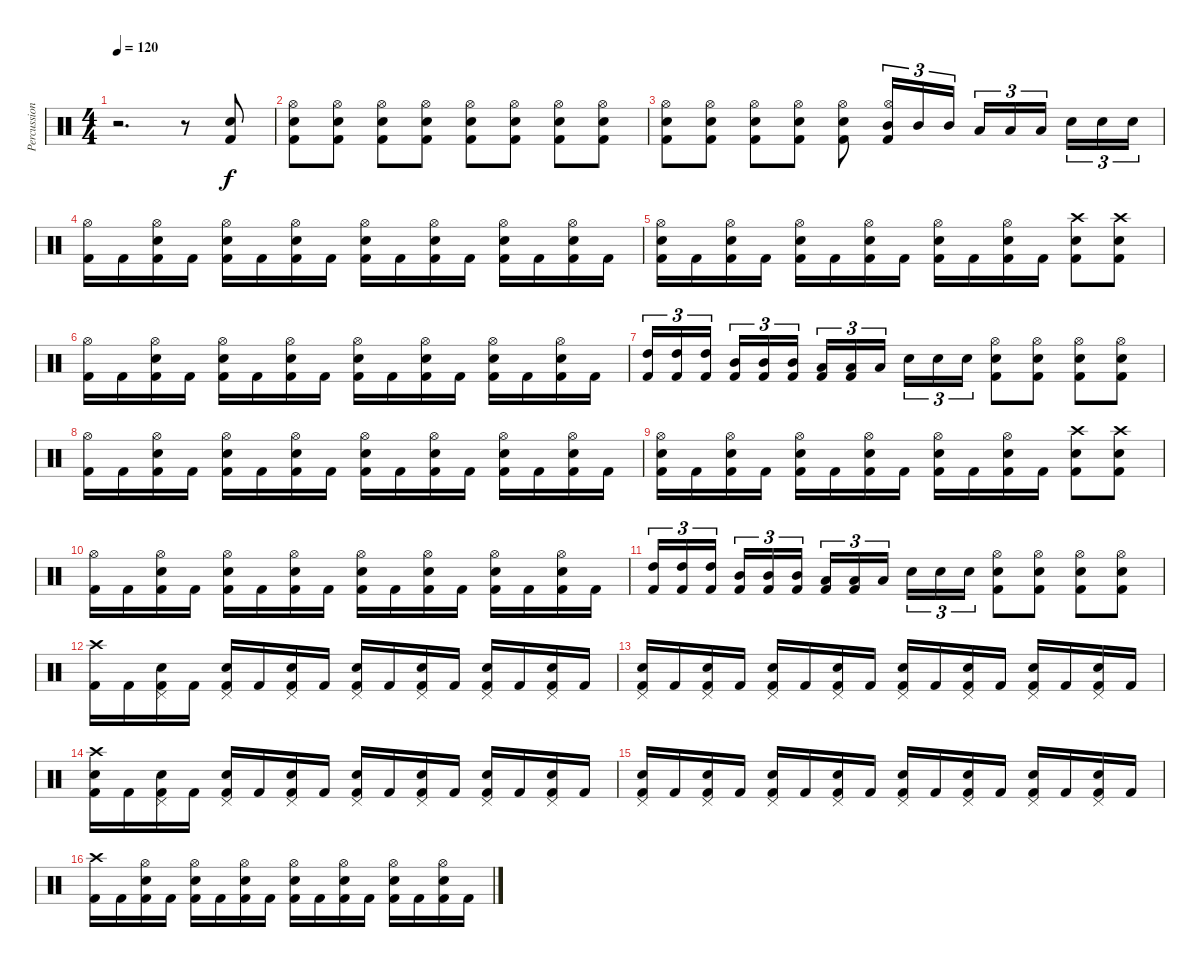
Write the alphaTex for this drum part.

\track ("Percussion" "Percussion") {instrument percussion}
\staff {score}
\articulation defaults
\ts (4 4)
\tempo 120
\clef neutral
\ks c
r.2{d dy f} r.8 ("Snare (hit) 2" "Kick (hit) 2").8 |
("Hi-Hat (open)" "Snare (hit) 2" "Kick (hit) 2").8 ("Hi-Hat (open)" "Snare (hit) 2" "Kick (hit) 2").8 ("Hi-Hat (open)" "Snare (hit) 2" "Kick (hit) 2").8 ("Hi-Hat (open)" "Snare (hit) 2" "Kick (hit) 2").8 ("Hi-Hat (open)" "Snare (hit) 2" "Kick (hit) 2").8 ("Hi-Hat (open)" "Snare (hit) 2" "Kick (hit) 2").8 ("Hi-Hat (open)" "Snare (hit) 2" "Kick (hit) 2").8 ("Hi-Hat (open)" "Snare (hit) 2" "Kick (hit) 2").8 |
("Hi-Hat (open)" "Snare (hit) 2" "Kick (hit) 2").8 ("Hi-Hat (open)" "Snare (hit) 2" "Kick (hit) 2").8 ("Hi-Hat (open)" "Snare (hit) 2" "Kick (hit) 2").8 ("Hi-Hat (open)" "Snare (hit) 2" "Kick (hit) 2").8 ("Hi-Hat (open)" "Snare (hit) 2" "Kick (hit) 2").8 ("Hi-Hat (open)" "Mid Tom (hit)" "Kick (hit) 2").16{tu (3 2)} "Mid Tom (hit)".16{tu (3 2)} "Mid Tom (hit)".16{tu (3 2)} "Low Tom (hit)".16{tu (3 2)} "Low Tom (hit)".16{tu (3 2)} "Low Tom (hit)".16{tu (3 2)} "Snare (hit) 2".16{tu (3 2)} "Snare (hit) 2".16{tu (3 2)} "Snare (hit) 2".16{tu (3 2)} |
("Hi-Hat (open)" "Kick (hit) 2").16 "Kick (hit) 2".16 ("Hi-Hat (open)" "Snare (hit) 2" "Kick (hit) 2").16 "Kick (hit) 2".16 ("Hi-Hat (open)" "Snare (hit) 2" "Kick (hit) 2").16 "Kick (hit) 2".16 ("Hi-Hat (open)" "Snare (hit) 2" "Kick (hit) 2").16 "Kick (hit) 2".16 ("Hi-Hat (open)" "Snare (hit) 2" "Kick (hit) 2").16 "Kick (hit) 2".16 ("Hi-Hat (open)" "Snare (hit) 2" "Kick (hit) 2").16 "Kick (hit) 2".16 ("Hi-Hat (open)" "Snare (hit) 2" "Kick (hit) 2").16 "Kick (hit) 2".16 ("Hi-Hat (open)" "Snare (hit) 2" "Kick (hit) 2").16 "Kick (hit) 2".16 |
("Hi-Hat (open)" "Snare (hit) 2" "Kick (hit) 2").16 "Kick (hit) 2".16 ("Hi-Hat (open)" "Snare (hit) 2" "Kick (hit) 2").16 "Kick (hit) 2".16 ("Hi-Hat (open)" "Snare (hit) 2" "Kick (hit) 2").16 "Kick (hit) 2".16 ("Hi-Hat (open)" "Snare (hit) 2" "Kick (hit) 2").16 "Kick (hit) 2".16 ("Hi-Hat (open)" "Snare (hit) 2" "Kick (hit) 2").16 "Kick (hit) 2".16 ("Hi-Hat (open)" "Snare (hit) 2" "Kick (hit) 2").16 "Kick (hit) 2".16 ("Crash high (hit)" "Snare (hit) 2" "Kick (hit) 2").8 ("Crash high (hit)" "Snare (hit) 2" "Kick (hit) 2").8 |
("Hi-Hat (open)" "Kick (hit) 2").16 "Kick (hit) 2".16 ("Hi-Hat (open)" "Snare (hit) 2" "Kick (hit) 2").16 "Kick (hit) 2".16 ("Hi-Hat (open)" "Snare (hit) 2" "Kick (hit) 2").16 "Kick (hit) 2".16 ("Hi-Hat (open)" "Snare (hit) 2" "Kick (hit) 2").16 "Kick (hit) 2".16 ("Hi-Hat (open)" "Snare (hit) 2" "Kick (hit) 2").16 "Kick (hit) 2".16 ("Hi-Hat (open)" "Snare (hit) 2" "Kick (hit) 2").16 "Kick (hit) 2".16 ("Hi-Hat (open)" "Snare (hit) 2" "Kick (hit) 2").16 "Kick (hit) 2".16 ("Hi-Hat (open)" "Snare (hit) 2" "Kick (hit) 2").16 "Kick (hit) 2".16 |
("High Tom (hit)" "Kick (hit) 2").16{tu (3 2)} ("High Tom (hit)" "Kick (hit) 2").16{tu (3 2)} ("High Tom (hit)" "Kick (hit) 2").16{tu (3 2)} ("Mid Tom (hit)" "Kick (hit) 2").16{tu (3 2)} ("Mid Tom (hit)" "Kick (hit) 2").16{tu (3 2)} ("Mid Tom (hit)" "Kick (hit) 2").16{tu (3 2)} ("Low Tom (hit)" "Kick (hit) 2").16{tu (3 2)} ("Low Tom (hit)" "Kick (hit) 2").16{tu (3 2)} "Low Tom (hit)".16{tu (3 2)} "Snare (hit) 2".16{tu (3 2)} "Snare (hit) 2".16{tu (3 2)} "Snare (hit) 2".16{tu (3 2)} ("Hi-Hat (open)" "Snare (hit) 2" "Kick (hit) 2").8 ("Hi-Hat (open)" "Snare (hit) 2" "Kick (hit) 2").8 ("Hi-Hat (open)" "Snare (hit) 2" "Kick (hit) 2").8 ("Hi-Hat (open)" "Snare (hit) 2" "Kick (hit) 2").8 |
("Hi-Hat (open)" "Kick (hit) 2").16 "Kick (hit) 2".16 ("Hi-Hat (open)" "Snare (hit) 2" "Kick (hit) 2").16 "Kick (hit) 2".16 ("Hi-Hat (open)" "Snare (hit) 2" "Kick (hit) 2").16 "Kick (hit) 2".16 ("Hi-Hat (open)" "Snare (hit) 2" "Kick (hit) 2").16 "Kick (hit) 2".16 ("Hi-Hat (open)" "Snare (hit) 2" "Kick (hit) 2").16 "Kick (hit) 2".16 ("Hi-Hat (open)" "Snare (hit) 2" "Kick (hit) 2").16 "Kick (hit) 2".16 ("Hi-Hat (open)" "Snare (hit) 2" "Kick (hit) 2").16 "Kick (hit) 2".16 ("Hi-Hat (open)" "Snare (hit) 2" "Kick (hit) 2").16 "Kick (hit) 2".16 |
("Hi-Hat (open)" "Snare (hit) 2" "Kick (hit) 2").16 "Kick (hit) 2".16 ("Hi-Hat (open)" "Snare (hit) 2" "Kick (hit) 2").16 "Kick (hit) 2".16 ("Hi-Hat (open)" "Snare (hit) 2" "Kick (hit) 2").16 "Kick (hit) 2".16 ("Hi-Hat (open)" "Snare (hit) 2" "Kick (hit) 2").16 "Kick (hit) 2".16 ("Hi-Hat (open)" "Snare (hit) 2" "Kick (hit) 2").16 "Kick (hit) 2".16 ("Hi-Hat (open)" "Snare (hit) 2" "Kick (hit) 2").16 "Kick (hit) 2".16 ("Crash high (hit)" "Snare (hit) 2" "Kick (hit) 2").8 ("Crash high (hit)" "Snare (hit) 2" "Kick (hit) 2").8 |
("Hi-Hat (open)" "Kick (hit) 2").16 "Kick (hit) 2".16 ("Hi-Hat (open)" "Snare (hit) 2" "Kick (hit) 2").16 "Kick (hit) 2".16 ("Hi-Hat (open)" "Snare (hit) 2" "Kick (hit) 2").16 "Kick (hit) 2".16 ("Hi-Hat (open)" "Snare (hit) 2" "Kick (hit) 2").16 "Kick (hit) 2".16 ("Hi-Hat (open)" "Snare (hit) 2" "Kick (hit) 2").16 "Kick (hit) 2".16 ("Hi-Hat (open)" "Snare (hit) 2" "Kick (hit) 2").16 "Kick (hit) 2".16 ("Hi-Hat (open)" "Snare (hit) 2" "Kick (hit) 2").16 "Kick (hit) 2".16 ("Hi-Hat (open)" "Snare (hit) 2" "Kick (hit) 2").16 "Kick (hit) 2".16 |
("High Tom (hit)" "Kick (hit) 2").16{tu (3 2)} ("High Tom (hit)" "Kick (hit) 2").16{tu (3 2)} ("High Tom (hit)" "Kick (hit) 2").16{tu (3 2)} ("Mid Tom (hit)" "Kick (hit) 2").16{tu (3 2)} ("Mid Tom (hit)" "Kick (hit) 2").16{tu (3 2)} ("Mid Tom (hit)" "Kick (hit) 2").16{tu (3 2)} ("Low Tom (hit)" "Kick (hit) 2").16{tu (3 2)} ("Low Tom (hit)" "Kick (hit) 2").16{tu (3 2)} "Low Tom (hit)".16{tu (3 2)} "Snare (hit) 2".16{tu (3 2)} "Snare (hit) 2".16{tu (3 2)} "Snare (hit) 2".16{tu (3 2)} ("Hi-Hat (open)" "Snare (hit) 2" "Kick (hit) 2").8 ("Hi-Hat (open)" "Snare (hit) 2" "Kick (hit) 2").8 ("Hi-Hat (open)" "Snare (hit) 2" "Kick (hit) 2").8 ("Hi-Hat (open)" "Snare (hit) 2" "Kick (hit) 2").8 |
("Crash high (hit)" "Kick (hit) 2").16 "Kick (hit) 2".16 ("Pedal Hi-Hat (hit)" "Snare (hit) 2" "Kick (hit) 2").16 "Kick (hit) 2".16 ("Pedal Hi-Hat (hit)" "Snare (hit) 2" "Kick (hit) 2").16 "Kick (hit) 2".16 ("Pedal Hi-Hat (hit)" "Snare (hit) 2" "Kick (hit) 2").16 "Kick (hit) 2".16 ("Pedal Hi-Hat (hit)" "Snare (hit) 2" "Kick (hit) 2").16 "Kick (hit) 2".16 ("Pedal Hi-Hat (hit)" "Snare (hit) 2" "Kick (hit) 2").16 "Kick (hit) 2".16 ("Pedal Hi-Hat (hit)" "Snare (hit) 2" "Kick (hit) 2").16 "Kick (hit) 2".16 ("Pedal Hi-Hat (hit)" "Snare (hit) 2" "Kick (hit) 2").16 "Kick (hit) 2".16 |
("Pedal Hi-Hat (hit)" "Snare (hit) 2" "Kick (hit) 2").16 "Kick (hit) 2".16 ("Pedal Hi-Hat (hit)" "Snare (hit) 2" "Kick (hit) 2").16 "Kick (hit) 2".16 ("Pedal Hi-Hat (hit)" "Snare (hit) 2" "Kick (hit) 2").16 "Kick (hit) 2".16 ("Pedal Hi-Hat (hit)" "Snare (hit) 2" "Kick (hit) 2").16 "Kick (hit) 2".16 ("Pedal Hi-Hat (hit)" "Snare (hit) 2" "Kick (hit) 2").16 "Kick (hit) 2".16 ("Pedal Hi-Hat (hit)" "Snare (hit) 2" "Kick (hit) 2").16 "Kick (hit) 2".16 ("Pedal Hi-Hat (hit)" "Snare (hit) 2" "Kick (hit) 2").16 "Kick (hit) 2".16 ("Pedal Hi-Hat (hit)" "Snare (hit) 2" "Kick (hit) 2").16 "Kick (hit) 2".16 |
("Crash high (hit)" "Snare (hit) 2" "Kick (hit) 2").16 "Kick (hit) 2".16 ("Pedal Hi-Hat (hit)" "Snare (hit) 2" "Kick (hit) 2").16 "Kick (hit) 2".16 ("Pedal Hi-Hat (hit)" "Snare (hit) 2" "Kick (hit) 2").16 "Kick (hit) 2".16 ("Pedal Hi-Hat (hit)" "Snare (hit) 2" "Kick (hit) 2").16 "Kick (hit) 2".16 ("Pedal Hi-Hat (hit)" "Snare (hit) 2" "Kick (hit) 2").16 "Kick (hit) 2".16 ("Pedal Hi-Hat (hit)" "Snare (hit) 2" "Kick (hit) 2").16 "Kick (hit) 2".16 ("Pedal Hi-Hat (hit)" "Snare (hit) 2" "Kick (hit) 2").16 "Kick (hit) 2".16 ("Pedal Hi-Hat (hit)" "Snare (hit) 2" "Kick (hit) 2").16 "Kick (hit) 2".16 |
("Pedal Hi-Hat (hit)" "Snare (hit) 2" "Kick (hit) 2").16 "Kick (hit) 2".16 ("Pedal Hi-Hat (hit)" "Snare (hit) 2" "Kick (hit) 2").16 "Kick (hit) 2".16 ("Pedal Hi-Hat (hit)" "Snare (hit) 2" "Kick (hit) 2").16 "Kick (hit) 2".16 ("Pedal Hi-Hat (hit)" "Snare (hit) 2" "Kick (hit) 2").16 "Kick (hit) 2".16 ("Pedal Hi-Hat (hit)" "Snare (hit) 2" "Kick (hit) 2").16 "Kick (hit) 2".16 ("Pedal Hi-Hat (hit)" "Snare (hit) 2" "Kick (hit) 2").16 "Kick (hit) 2".16 ("Pedal Hi-Hat (hit)" "Snare (hit) 2" "Kick (hit) 2").16 "Kick (hit) 2".16 ("Pedal Hi-Hat (hit)" "Snare (hit) 2" "Kick (hit) 2").16 "Kick (hit) 2".16 |
("Crash high (hit)" "Kick (hit) 2").16 "Kick (hit) 2".16 ("Hi-Hat (open)" "Snare (hit) 2" "Kick (hit) 2").16 "Kick (hit) 2".16 ("Hi-Hat (open)" "Snare (hit) 2" "Kick (hit) 2").16 "Kick (hit) 2".16 ("Hi-Hat (open)" "Snare (hit) 2" "Kick (hit) 2").16 "Kick (hit) 2".16 ("Hi-Hat (open)" "Snare (hit) 2" "Kick (hit) 2").16 "Kick (hit) 2".16 ("Hi-Hat (open)" "Snare (hit) 2" "Kick (hit) 2").16 "Kick (hit) 2".16 ("Hi-Hat (open)" "Snare (hit) 2" "Kick (hit) 2").16 "Kick (hit) 2".16 ("Hi-Hat (open)" "Snare (hit) 2" "Kick (hit) 2").16 "Kick (hit) 2".16
